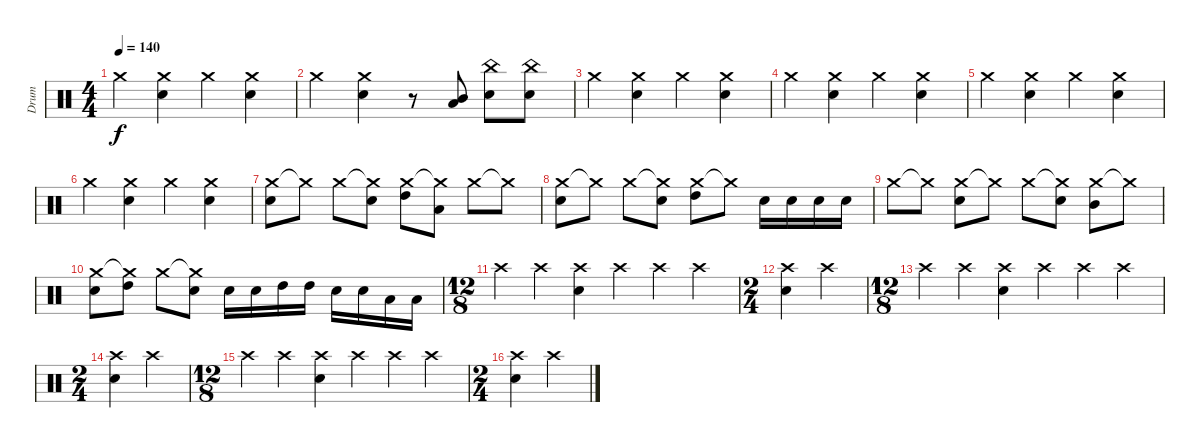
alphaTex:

\track ("Drum" "Drum") {instrument percussion}
\staff {score}
\articulation defaults
\ts (4 4)
\tempo 140
\clef neutral
\ks c "Crash medium (hit)".4{dy f}
("Crash medium (hit)" "Snare (hit) 2").4 "Crash medium (hit)".4 ("Crash medium (hit)" "Snare (hit) 2").4 |
"Crash medium (hit)".4 ("Crash medium (hit)" "Snare (hit) 2").4 r.8 ("Mid Tom (hit)" "Low Tom (hit)").8 ("Snare (hit) 2" "China (hit)").8 ("Snare (hit) 2" "China (hit)").8 |
"Crash medium (hit)".4 ("Crash medium (hit)" "Snare (hit) 2").4 "Crash medium (hit)".4 ("Crash medium (hit)" "Snare (hit) 2").4 |
"Crash medium (hit)".4 ("Crash medium (hit)" "Snare (hit) 2").4 "Crash medium (hit)".4 ("Crash medium (hit)" "Snare (hit) 2").4 |
"Crash medium (hit)".4 ("Crash medium (hit)" "Snare (hit) 2").4 "Crash medium (hit)".4 ("Crash medium (hit)" "Snare (hit) 2").4 |
"Crash medium (hit)".4 ("Crash medium (hit)" "Snare (hit) 2").4 "Crash medium (hit)".4 ("Crash medium (hit)" "Snare (hit) 2").4 |
("Crash medium (hit)" "Snare (hit) 2").8 "Crash medium (hit)"{t}.8 "Crash medium (hit)".8 ("Crash medium (hit)"{t} "Snare (hit) 2").8 ("Crash medium (hit)" "High Tom (hit)").8 ("Crash medium (hit)"{t} "Low Tom (hit)").8 "Crash medium (hit)".8 "Crash medium (hit)"{t}.8 |
("Crash medium (hit)" "Snare (hit) 2").8 "Crash medium (hit)"{t}.8 "Crash medium (hit)".8 ("Crash medium (hit)"{t} "Snare (hit) 2").8 ("Crash medium (hit)" "High Tom (hit)").8 "Crash medium (hit)"{t}.8 "Snare (hit) 2".16 "Snare (hit) 2".16 "Snare (hit) 2".16 "Snare (hit) 2".16 |
"Crash medium (hit)".8 "Crash medium (hit)"{t}.8 ("Crash medium (hit)" "Snare (hit) 2").8 "Crash medium (hit)"{t}.8 "Crash medium (hit)".8 ("Crash medium (hit)"{t} "Snare (hit) 2").8 ("Crash medium (hit)" "Mid Tom (hit)").8 "Crash medium (hit)"{t}.8 |
("Crash medium (hit)" "Snare (hit) 2").8 ("Crash medium (hit)"{t} "High Tom (hit)").8 "Crash medium (hit)".8 ("Crash medium (hit)"{t} "Snare (hit) 2").8 "Snare (hit) 2".16 "Snare (hit) 2".16 "High Tom (hit)".16 "High Tom (hit)".16 "Snare (hit) 2".16 "Snare (hit) 2".16 "Low Tom (hit)".16 "Low Tom (hit)".16 |
\ts (12 8)
"Crash high (hit)".4 "Crash high (hit)".4 ("Crash high (hit)" "Snare (hit) 2").4 "Crash high (hit)".4 "Crash high (hit)".4 "Crash high (hit)".4 |
\ts (2 4)
("Crash high (hit)" "Snare (hit) 2").4 "Crash high (hit)".4 |
\ts (12 8)
"Crash high (hit)".4 "Crash high (hit)".4 ("Crash high (hit)" "Snare (hit) 2").4 "Crash high (hit)".4 "Crash high (hit)".4 "Crash high (hit)".4 |
\ts (2 4)
("Crash high (hit)" "Snare (hit) 2").4 "Crash high (hit)".4 |
\ts (12 8)
"Crash high (hit)".4 "Crash high (hit)".4 ("Crash high (hit)" "Snare (hit) 2").4 "Crash high (hit)".4 "Crash high (hit)".4 "Crash high (hit)".4 |
\ts (2 4)
("Crash high (hit)" "Snare (hit) 2").4 "Crash high (hit)".4
